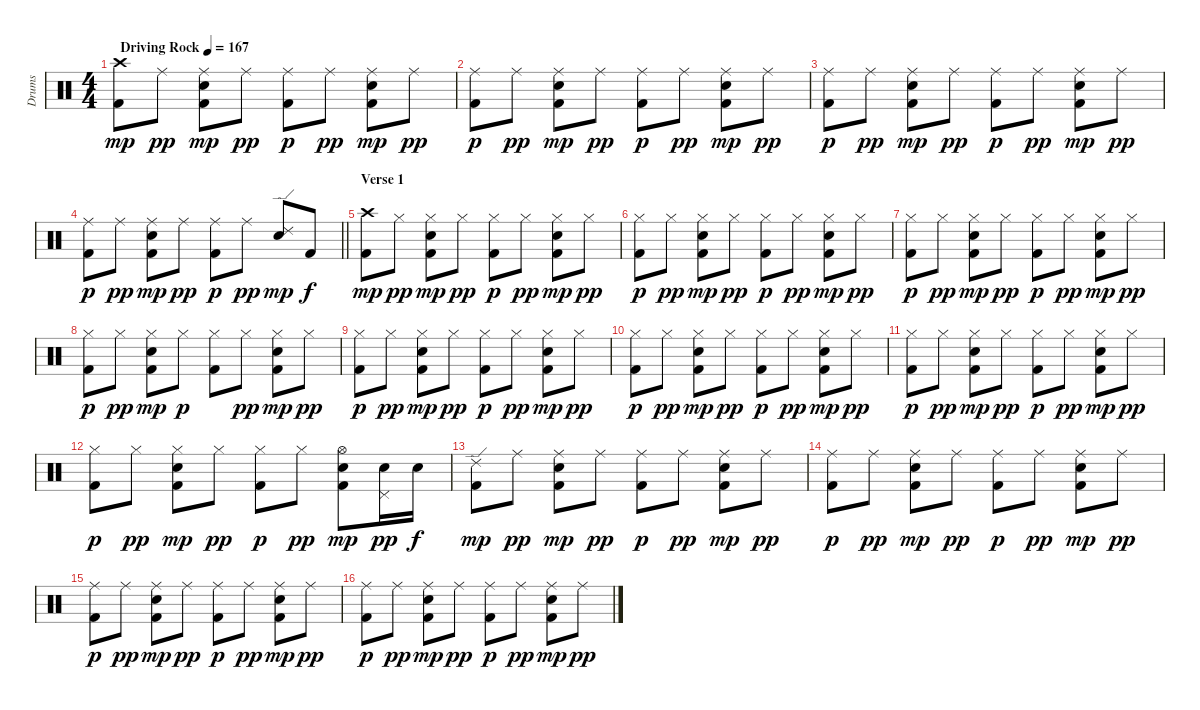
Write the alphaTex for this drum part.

\track ("Drums" "Drums") {instrument percussion}
\staff {score}
\articulation defaults
\ts (4 4)
\tempo (167 "Driving Rock")
\clef neutral
\ks aminor
("Crash high (hit)" "Kick (hit) 2").8{dy mp} "Ride (middle)".8{dy pp} ("Ride (middle)" "Kick (hit) 2" "Electric Snare (hit)").8{dy mp} "Ride (middle)".8{dy pp} ("Ride (middle)" "Kick (hit) 2").8{dy p} "Ride (middle)".8{dy pp} ("Ride (middle)" "Kick (hit) 2" "Electric Snare (hit)").8{dy mp} "Ride (middle)".8{dy pp} |
("Ride (middle)" "Kick (hit) 2").8{dy p} "Ride (middle)".8{dy pp} ("Ride (middle)" "Kick (hit) 2" "Electric Snare (hit)").8{dy mp} "Ride (middle)".8{dy pp} ("Ride (middle)" "Kick (hit) 2").8{dy p} "Ride (middle)".8{dy pp} ("Ride (middle)" "Kick (hit) 2" "Electric Snare (hit)").8{dy mp} "Ride (middle)".8{dy pp} |
("Ride (middle)" "Kick (hit) 2").8{dy p} "Ride (middle)".8{dy pp} ("Ride (middle)" "Kick (hit) 2" "Electric Snare (hit)").8{dy mp} "Ride (middle)".8{dy pp} ("Ride (middle)" "Kick (hit) 2").8{dy p} "Ride (middle)".8{dy pp} ("Ride (middle)" "Kick (hit) 2" "Electric Snare (hit)").8{dy mp} "Ride (middle)".8{dy pp} |
\barLineRight lightlight
("Ride (middle)" "Kick (hit) 2").8{dy p} "Ride (middle)".8{dy pp} ("Ride (middle)" "Kick (hit) 2" "Electric Snare (hit)").8{dy mp} "Ride (middle)".8{dy pp} ("Ride (middle)" "Kick (hit) 2").8{dy p} "Ride (middle)".8{dy pp} ("Ride (edge) 2" "Electric Snare (hit)").8{dy mp} "Kick (hit) 2".8{dy f} |
\section ("" "Verse 1")
("Kick (hit) 2" "Crash high (hit)").8{dy mp} "Hi-Hat (closed)".8{dy pp} ("Hi-Hat (closed)" "Electric Snare (hit)" "Kick (hit) 2").8{dy mp} "Hi-Hat (closed)".8{dy pp} ("Hi-Hat (closed)" "Kick (hit) 2").8{dy p} "Hi-Hat (closed)".8{dy pp} ("Hi-Hat (closed)" "Electric Snare (hit)" "Kick (hit) 2").8{dy mp} "Hi-Hat (closed)".8{dy pp} |
("Hi-Hat (closed)" "Kick (hit) 2").8{dy p} "Hi-Hat (closed)".8{dy pp} ("Hi-Hat (closed)" "Electric Snare (hit)" "Kick (hit) 2").8{dy mp} "Hi-Hat (closed)".8{dy pp} ("Hi-Hat (closed)" "Kick (hit) 2").8{dy p} "Hi-Hat (closed)".8{dy pp} ("Hi-Hat (closed)" "Electric Snare (hit)" "Kick (hit) 2").8{dy mp} "Hi-Hat (closed)".8{dy pp} |
("Hi-Hat (closed)" "Kick (hit) 2").8{dy p} "Hi-Hat (closed)".8{dy pp} ("Hi-Hat (closed)" "Electric Snare (hit)" "Kick (hit) 2").8{dy mp} "Hi-Hat (closed)".8{dy pp} ("Hi-Hat (closed)" "Kick (hit) 2").8{dy p} "Hi-Hat (closed)".8{dy pp} ("Hi-Hat (closed)" "Electric Snare (hit)" "Kick (hit) 2").8{dy mp} "Hi-Hat (closed)".8{dy pp} |
("Hi-Hat (closed)" "Kick (hit) 2").8{dy p} "Hi-Hat (closed)".8{dy pp} ("Hi-Hat (closed)" "Electric Snare (hit)" "Kick (hit) 2").8{dy mp} "Hi-Hat (closed)".8{dy p} ("Hi-Hat (closed)" "Kick (hit) 2").8 "Hi-Hat (closed)".8{dy pp} ("Hi-Hat (closed)" "Electric Snare (hit)" "Kick (hit) 2").8{dy mp} "Hi-Hat (closed)".8{dy pp} |
("Hi-Hat (closed)" "Kick (hit) 2").8{dy p} "Hi-Hat (closed)".8{dy pp} ("Hi-Hat (closed)" "Electric Snare (hit)" "Kick (hit) 2").8{dy mp} "Hi-Hat (closed)".8{dy pp} ("Hi-Hat (closed)" "Kick (hit) 2").8{dy p} "Hi-Hat (closed)".8{dy pp} ("Hi-Hat (closed)" "Electric Snare (hit)" "Kick (hit) 2").8{dy mp} "Hi-Hat (closed)".8{dy pp} |
("Hi-Hat (closed)" "Kick (hit) 2").8{dy p} "Hi-Hat (closed)".8{dy pp} ("Hi-Hat (closed)" "Electric Snare (hit)" "Kick (hit) 2").8{dy mp} "Hi-Hat (closed)".8{dy pp} ("Hi-Hat (closed)" "Kick (hit) 2").8{dy p} "Hi-Hat (closed)".8{dy pp} ("Hi-Hat (closed)" "Electric Snare (hit)" "Kick (hit) 2").8{dy mp} "Hi-Hat (closed)".8{dy pp} |
("Hi-Hat (closed)" "Kick (hit) 2").8{dy p} "Hi-Hat (closed)".8{dy pp} ("Hi-Hat (closed)" "Electric Snare (hit)" "Kick (hit) 2").8{dy mp} "Hi-Hat (closed)".8{dy pp} ("Hi-Hat (closed)" "Kick (hit) 2").8{dy p} "Hi-Hat (closed)".8{dy pp} ("Hi-Hat (closed)" "Electric Snare (hit)" "Kick (hit) 2").8{dy mp} "Hi-Hat (closed)".8{dy pp} |
("Hi-Hat (closed)" "Kick (hit) 2").8{dy p} "Hi-Hat (closed)".8{dy pp} ("Hi-Hat (closed)" "Electric Snare (hit)" "Kick (hit) 2").8{dy mp} "Hi-Hat (closed)".8{dy pp} ("Hi-Hat (closed)" "Kick (hit) 2").8{dy p} "Hi-Hat (closed)".8{dy pp} ("Hi-Hat (open)" "Electric Snare (hit)" "Kick (hit) 2").8{dy mp} ("Electric Snare (hit)" "Pedal Hi-Hat (hit)").16{dy pp} "Electric Snare (hit)".16{dy f} |
("Ride (edge) 2" "Kick (hit) 2").8{dy mp} "Ride (middle)".8{dy pp} ("Ride (middle)" "Kick (hit) 2" "Electric Snare (hit)").8{dy mp} "Ride (middle)".8{dy pp} ("Ride (middle)" "Kick (hit) 2").8{dy p} "Ride (middle)".8{dy pp} ("Ride (middle)" "Kick (hit) 2" "Electric Snare (hit)").8{dy mp} "Ride (middle)".8{dy pp} |
("Ride (middle)" "Kick (hit) 2").8{dy p} "Ride (middle)".8{dy pp} ("Ride (middle)" "Kick (hit) 2" "Electric Snare (hit)").8{dy mp} "Ride (middle)".8{dy pp} ("Ride (middle)" "Kick (hit) 2").8{dy p} "Ride (middle)".8{dy pp} ("Ride (middle)" "Kick (hit) 2" "Electric Snare (hit)").8{dy mp} "Ride (middle)".8{dy pp} |
("Ride (middle)" "Kick (hit) 2").8{dy p} "Ride (middle)".8{dy pp} ("Ride (middle)" "Kick (hit) 2" "Electric Snare (hit)").8{dy mp} "Ride (middle)".8{dy pp} ("Ride (middle)" "Kick (hit) 2").8{dy p} "Ride (middle)".8{dy pp} ("Ride (middle)" "Kick (hit) 2" "Electric Snare (hit)").8{dy mp} "Ride (middle)".8{dy pp} |
("Ride (middle)" "Kick (hit) 2").8{dy p} "Ride (middle)".8{dy pp} ("Ride (middle)" "Kick (hit) 2" "Electric Snare (hit)").8{dy mp} "Ride (middle)".8{dy pp} ("Ride (middle)" "Kick (hit) 2").8{dy p} "Ride (middle)".8{dy pp} ("Ride (middle)" "Kick (hit) 2" "Electric Snare (hit)").8{dy mp} "Ride (middle)".8{dy pp}
